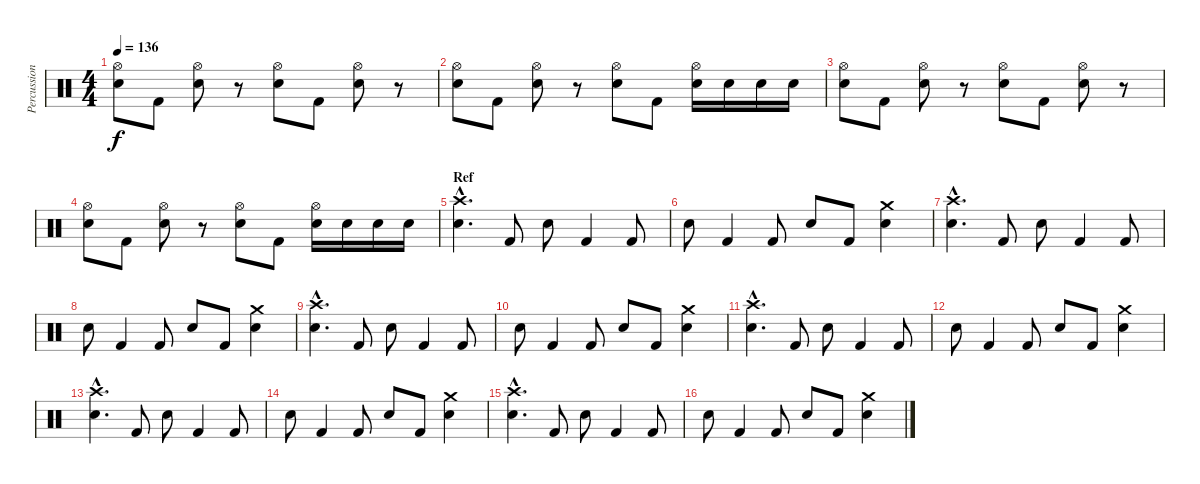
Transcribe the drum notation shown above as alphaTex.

\track ("Percussions" "Percussion") {instrument percussion}
\staff {score}
\articulation defaults
\ts (4 4)
\tempo 136
\clef neutral
\ks c
("Hi-Hat (open)" "Snare (hit) 2").8{dy f} "Kick (hit) 2".8 ("Hi-Hat (open)" "Snare (hit) 2").8 r.8 ("Hi-Hat (open)" "Snare (hit) 2").8 "Kick (hit) 2".8 ("Hi-Hat (open)" "Snare (hit) 2").8 r.8 |
("Hi-Hat (open)" "Snare (hit) 2").8 "Kick (hit) 2".8 ("Hi-Hat (open)" "Snare (hit) 2").8 r.8 ("Hi-Hat (open)" "Snare (hit) 2").8 "Kick (hit) 2".8 ("Hi-Hat (open)" "Snare (hit) 2").16 "Snare (hit) 2".16 "Snare (hit) 2".16 "Snare (hit) 2".16 |
("Hi-Hat (open)" "Snare (hit) 2").8 "Kick (hit) 2".8 ("Hi-Hat (open)" "Snare (hit) 2").8 r.8 ("Hi-Hat (open)" "Snare (hit) 2").8 "Kick (hit) 2".8 ("Hi-Hat (open)" "Snare (hit) 2").8 r.8 |
("Hi-Hat (open)" "Snare (hit) 2").8 "Kick (hit) 2".8 ("Hi-Hat (open)" "Snare (hit) 2").8 r.8 ("Hi-Hat (open)" "Snare (hit) 2").8 "Kick (hit) 2".8 ("Hi-Hat (open)" "Snare (hit) 2").16 "Snare (hit) 2".16 "Snare (hit) 2".16 "Snare (hit) 2".16 |
\section ("" "Ref")
("Crash high (hit)"{hac} "Snare (hit) 2"{hac}).4{d} "Kick (hit) 2".8 "Snare (hit) 2".8 "Kick (hit) 2".4 "Kick (hit) 2".8 |
"Snare (hit) 2".8 "Kick (hit) 2".4 "Kick (hit) 2".8 "Snare (hit) 2".8 "Kick (hit) 2".8 ("Crash medium (hit)" "Snare (hit) 2").4 |
("Crash high (hit)"{hac} "Snare (hit) 2"{hac}).4{d} "Kick (hit) 2".8 "Snare (hit) 2".8 "Kick (hit) 2".4 "Kick (hit) 2".8 |
"Snare (hit) 2".8 "Kick (hit) 2".4 "Kick (hit) 2".8 "Snare (hit) 2".8 "Kick (hit) 2".8 ("Crash medium (hit)" "Snare (hit) 2").4 |
("Crash high (hit)"{hac} "Snare (hit) 2"{hac}).4{d} "Kick (hit) 2".8 "Snare (hit) 2".8 "Kick (hit) 2".4 "Kick (hit) 2".8 |
"Snare (hit) 2".8 "Kick (hit) 2".4 "Kick (hit) 2".8 "Snare (hit) 2".8 "Kick (hit) 2".8 ("Crash medium (hit)" "Snare (hit) 2").4 |
("Crash high (hit)"{hac} "Snare (hit) 2"{hac}).4{d} "Kick (hit) 2".8 "Snare (hit) 2".8 "Kick (hit) 2".4 "Kick (hit) 2".8 |
"Snare (hit) 2".8 "Kick (hit) 2".4 "Kick (hit) 2".8 "Snare (hit) 2".8 "Kick (hit) 2".8 ("Crash medium (hit)" "Snare (hit) 2").4 |
("Crash high (hit)"{hac} "Snare (hit) 2"{hac}).4{d} "Kick (hit) 2".8 "Snare (hit) 2".8 "Kick (hit) 2".4 "Kick (hit) 2".8 |
"Snare (hit) 2".8 "Kick (hit) 2".4 "Kick (hit) 2".8 "Snare (hit) 2".8 "Kick (hit) 2".8 ("Crash medium (hit)" "Snare (hit) 2").4 |
("Crash high (hit)"{hac} "Snare (hit) 2"{hac}).4{d} "Kick (hit) 2".8 "Snare (hit) 2".8 "Kick (hit) 2".4 "Kick (hit) 2".8 |
"Snare (hit) 2".8 "Kick (hit) 2".4 "Kick (hit) 2".8 "Snare (hit) 2".8 "Kick (hit) 2".8 ("Crash medium (hit)" "Snare (hit) 2").4
